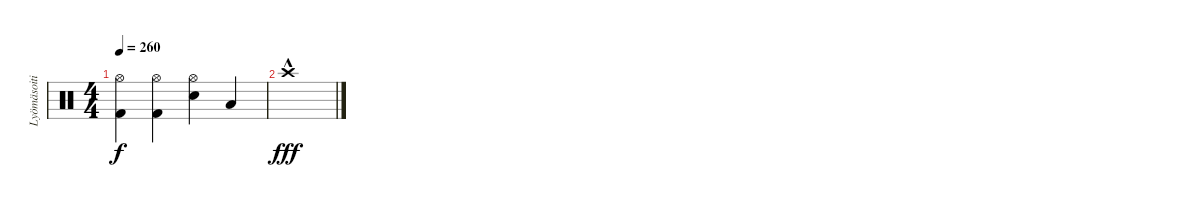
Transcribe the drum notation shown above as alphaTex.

\track ("Lyömäsoitin" "Lyömäsoiti") {instrument percussion}
\staff {score}
\articulation defaults
\ts (4 4)
\tempo 260
\clef neutral
\ks c
("Hi-Hat (open)" "Kick (hit) 2").4{dy f} ("Hi-Hat (open)" "Kick (hit) 2").4 ("Hi-Hat (open)" "Electric Snare (hit)").4 "Low Floor Tom (hit)".4 |
"Crash high (hit)"{hac}.1{dy fff}
